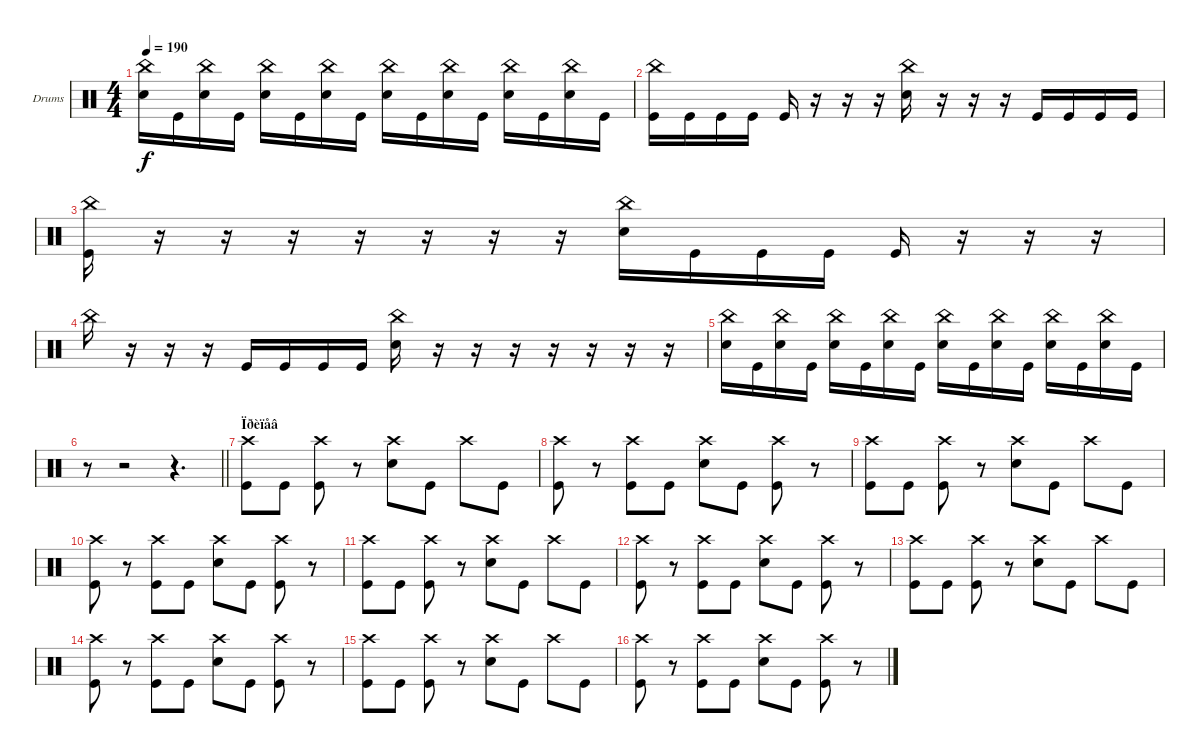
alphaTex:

\bracketExtendMode groupsimilarinstruments
\firstSystemTrackNameOrientation horizontal
\otherSystemsTrackNameOrientation horizontal
\track ("Drumkit" "Drums") {instrument percussion}
\staff {score}
\articulation defaults
\ts (4 4)
\tempo 190
\clef neutral
\ks c
("China (hit)" "Snare (hit) 2").16{dy f} "Kick (hit)".16 ("China (hit)" "Snare (hit) 2").16 "Kick (hit)".16 ("China (hit)" "Snare (hit) 2").16 "Kick (hit)".16 ("China (hit)" "Snare (hit) 2").16 "Kick (hit)".16 ("China (hit)" "Snare (hit) 2").16 "Kick (hit)".16 ("China (hit)" "Snare (hit) 2").16 "Kick (hit)".16 ("China (hit)" "Snare (hit) 2").16 "Kick (hit)".16 ("China (hit)" "Snare (hit) 2").16 "Kick (hit)".16 |
("China (hit)" "Kick (hit)").16 "Kick (hit)".16 "Kick (hit)".16 "Kick (hit)".16 "Kick (hit)".16 r.16 r.16 r.16 ("China (hit)" "Snare (hit) 2").16 r.16 r.16 r.16 "Kick (hit)".16 "Kick (hit)".16 "Kick (hit)".16 "Kick (hit)".16 |
("China (hit)" "Kick (hit)").16 r.16 r.16 r.16 r.16 r.16 r.16 r.16 ("China (hit)" "Snare (hit) 2").16 "Kick (hit)".16 "Kick (hit)".16 "Kick (hit)".16 "Kick (hit)".16 r.16 r.16 r.16 |
"China (hit)".16 r.16 r.16 r.16 "Kick (hit)".16 "Kick (hit)".16 "Kick (hit)".16 "Kick (hit)".16 ("China (hit)" "Snare (hit) 2").16 r.16 r.16 r.16 r.16 r.16 r.16 r.16 |
("China (hit)" "Snare (hit) 2").16 "Kick (hit)".16 ("China (hit)" "Snare (hit) 2").16 "Kick (hit)".16 ("China (hit)" "Snare (hit) 2").16 "Kick (hit)".16 ("China (hit)" "Snare (hit) 2").16 "Kick (hit)".16 ("China (hit)" "Snare (hit) 2").16 "Kick (hit)".16 ("China (hit)" "Snare (hit) 2").16 "Kick (hit)".16 ("China (hit)" "Snare (hit) 2").16 "Kick (hit)".16 ("China (hit)" "Snare (hit) 2").16 "Kick (hit)".16 |
\barLineRight lightlight
r.8 r.2 r.4{d} |
\section ("" "Ïðèïåâ")
("Crash high (hit)" "Kick (hit)").8 "Kick (hit)".8 ("Crash high (hit)" "Kick (hit)").8 r.8 ("Crash high (hit)" "Snare (hit) 2").8 "Kick (hit)".8 "Crash high (hit)".8 "Kick (hit)".8 |
("Crash high (hit)" "Kick (hit)").8 r.8 ("Crash high (hit)" "Kick (hit)").8 "Kick (hit)".8 ("Crash high (hit)" "Snare (hit) 2").8 "Kick (hit)".8 ("Crash high (hit)" "Kick (hit)").8 r.8 |
("Crash high (hit)" "Kick (hit)").8 "Kick (hit)".8 ("Crash high (hit)" "Kick (hit)").8 r.8 ("Crash high (hit)" "Snare (hit) 2").8 "Kick (hit)".8 "Crash high (hit)".8 "Kick (hit)".8 |
("Crash high (hit)" "Kick (hit)").8 r.8 ("Crash high (hit)" "Kick (hit)").8 "Kick (hit)".8 ("Crash high (hit)" "Snare (hit) 2").8 "Kick (hit)".8 ("Crash high (hit)" "Kick (hit)").8 r.8 |
("Crash high (hit)" "Kick (hit)").8 "Kick (hit)".8 ("Crash high (hit)" "Kick (hit)").8 r.8 ("Crash high (hit)" "Snare (hit) 2").8 "Kick (hit)".8 "Crash high (hit)".8 "Kick (hit)".8 |
("Crash high (hit)" "Kick (hit)").8 r.8 ("Crash high (hit)" "Kick (hit)").8 "Kick (hit)".8 ("Crash high (hit)" "Snare (hit) 2").8 "Kick (hit)".8 ("Crash high (hit)" "Kick (hit)").8 r.8 |
("Crash high (hit)" "Kick (hit)").8 "Kick (hit)".8 ("Crash high (hit)" "Kick (hit)").8 r.8 ("Crash high (hit)" "Snare (hit) 2").8 "Kick (hit)".8 "Crash high (hit)".8 "Kick (hit)".8 |
("Crash high (hit)" "Kick (hit)").8 r.8 ("Crash high (hit)" "Kick (hit)").8 "Kick (hit)".8 ("Crash high (hit)" "Snare (hit) 2").8 "Kick (hit)".8 ("Crash high (hit)" "Kick (hit)").8 r.8 |
("Crash high (hit)" "Kick (hit)").8 "Kick (hit)".8 ("Crash high (hit)" "Kick (hit)").8 r.8 ("Crash high (hit)" "Snare (hit) 2").8 "Kick (hit)".8 "Crash high (hit)".8 "Kick (hit)".8 |
("Crash high (hit)" "Kick (hit)").8 r.8 ("Crash high (hit)" "Kick (hit)").8 "Kick (hit)".8 ("Crash high (hit)" "Snare (hit) 2").8 "Kick (hit)".8 ("Crash high (hit)" "Kick (hit)").8 r.8
